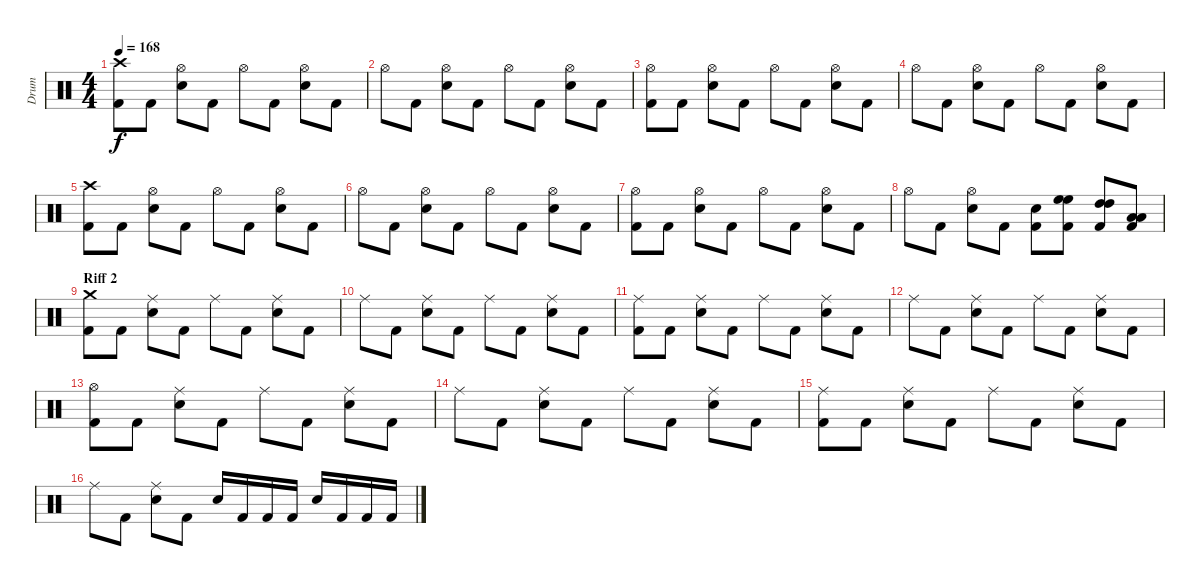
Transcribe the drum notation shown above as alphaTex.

\track ("Drum" "Drum") {instrument percussion}
\staff {score}
\articulation defaults
\ts (4 4)
\tempo 168
\clef neutral
\ks c
("Crash high (hit)" "Kick (hit) 2").8{dy f} "Kick (hit) 2".8 ("Hi-Hat (open)" "Electric Snare (hit)").8 "Kick (hit) 2".8 "Hi-Hat (open)".8 "Kick (hit) 2".8 ("Hi-Hat (open)" "Electric Snare (hit)").8 "Kick (hit) 2".8 |
"Hi-Hat (open)".8 "Kick (hit) 2".8 ("Hi-Hat (open)" "Electric Snare (hit)").8 "Kick (hit) 2".8 "Hi-Hat (open)".8 "Kick (hit) 2".8 ("Hi-Hat (open)" "Electric Snare (hit)").8 "Kick (hit) 2".8 |
("Hi-Hat (open)" "Kick (hit) 2").8 "Kick (hit) 2".8 ("Hi-Hat (open)" "Electric Snare (hit)").8 "Kick (hit) 2".8 "Hi-Hat (open)".8 "Kick (hit) 2".8 ("Hi-Hat (open)" "Electric Snare (hit)").8 "Kick (hit) 2".8 |
"Hi-Hat (open)".8 "Kick (hit) 2".8 ("Hi-Hat (open)" "Electric Snare (hit)").8 "Kick (hit) 2".8 "Hi-Hat (open)".8 "Kick (hit) 2".8 ("Hi-Hat (open)" "Electric Snare (hit)").8 "Kick (hit) 2".8 |
("Crash high (hit)" "Kick (hit) 2").8 "Kick (hit) 2".8 ("Hi-Hat (open)" "Electric Snare (hit)").8 "Kick (hit) 2".8 "Hi-Hat (open)".8 "Kick (hit) 2".8 ("Hi-Hat (open)" "Electric Snare (hit)").8 "Kick (hit) 2".8 |
"Hi-Hat (open)".8 "Kick (hit) 2".8 ("Hi-Hat (open)" "Electric Snare (hit)").8 "Kick (hit) 2".8 "Hi-Hat (open)".8 "Kick (hit) 2".8 ("Hi-Hat (open)" "Electric Snare (hit)").8 "Kick (hit) 2".8 |
("Hi-Hat (open)" "Kick (hit) 2").8 "Kick (hit) 2".8 ("Hi-Hat (open)" "Electric Snare (hit)").8 "Kick (hit) 2".8 "Hi-Hat (open)".8 "Kick (hit) 2".8 ("Hi-Hat (open)" "Electric Snare (hit)").8 "Kick (hit) 2".8 |
"Hi-Hat (open)".8 "Kick (hit) 2".8 ("Hi-Hat (open)" "Electric Snare (hit)").8 "Kick (hit) 2".8 ("Electric Snare (hit)" "Kick (hit) 2").8 ("High Floor Tom (hit)" "High Floor Tom (hit)" "Kick (hit) 2").8 ("High Tom (hit)" "High Tom (hit)" "Kick (hit) 2").8 ("Low Tom (hit)" "Low Tom (hit)" "Kick (hit) 2").8 |
\section ("" "Riff 2")
("Crash medium (hit)" "Kick (hit) 2").8 "Kick (hit) 2".8 ("Ride (middle)" "Electric Snare (hit)").8 "Kick (hit) 2".8 "Ride (middle)".8 "Kick (hit) 2".8 ("Ride (middle)" "Electric Snare (hit)").8 "Kick (hit) 2".8 |
"Ride (middle)".8 "Kick (hit) 2".8 ("Ride (middle)" "Electric Snare (hit)").8 "Kick (hit) 2".8 "Ride (middle)".8 "Kick (hit) 2".8 ("Ride (middle)" "Electric Snare (hit)").8 "Kick (hit) 2".8 |
("Ride (middle)" "Kick (hit) 2").8 "Kick (hit) 2".8 ("Ride (middle)" "Electric Snare (hit)").8 "Kick (hit) 2".8 "Ride (middle)".8 "Kick (hit) 2".8 ("Ride (middle)" "Electric Snare (hit)").8 "Kick (hit) 2".8 |
"Ride (middle)".8 "Kick (hit) 2".8 ("Ride (middle)" "Electric Snare (hit)").8 "Kick (hit) 2".8 "Ride (middle)".8 "Kick (hit) 2".8 ("Ride (middle)" "Electric Snare (hit)").8 "Kick (hit) 2".8 |
("Hi-Hat (open)" "Kick (hit) 2").8 "Kick (hit) 2".8 ("Ride (middle)" "Electric Snare (hit)").8 "Kick (hit) 2".8 "Ride (middle)".8 "Kick (hit) 2".8 ("Ride (middle)" "Electric Snare (hit)").8 "Kick (hit) 2".8 |
"Ride (middle)".8 "Kick (hit) 2".8 ("Ride (middle)" "Electric Snare (hit)").8 "Kick (hit) 2".8 "Ride (middle)".8 "Kick (hit) 2".8 ("Ride (middle)" "Electric Snare (hit)").8 "Kick (hit) 2".8 |
("Ride (middle)" "Kick (hit) 2").8 "Kick (hit) 2".8 ("Ride (middle)" "Electric Snare (hit)").8 "Kick (hit) 2".8 "Ride (middle)".8 "Kick (hit) 2".8 ("Ride (middle)" "Electric Snare (hit)").8 "Kick (hit) 2".8 |
"Ride (middle)".8 "Kick (hit) 2".8 ("Ride (middle)" "Electric Snare (hit)").8 "Kick (hit) 2".8 "Electric Snare (hit)".16 "Kick (hit) 2".16 "Kick (hit) 2".16 "Kick (hit) 2".16 "Electric Snare (hit)".16 "Kick (hit) 2".16 "Kick (hit) 2".16 "Kick (hit) 2".16
